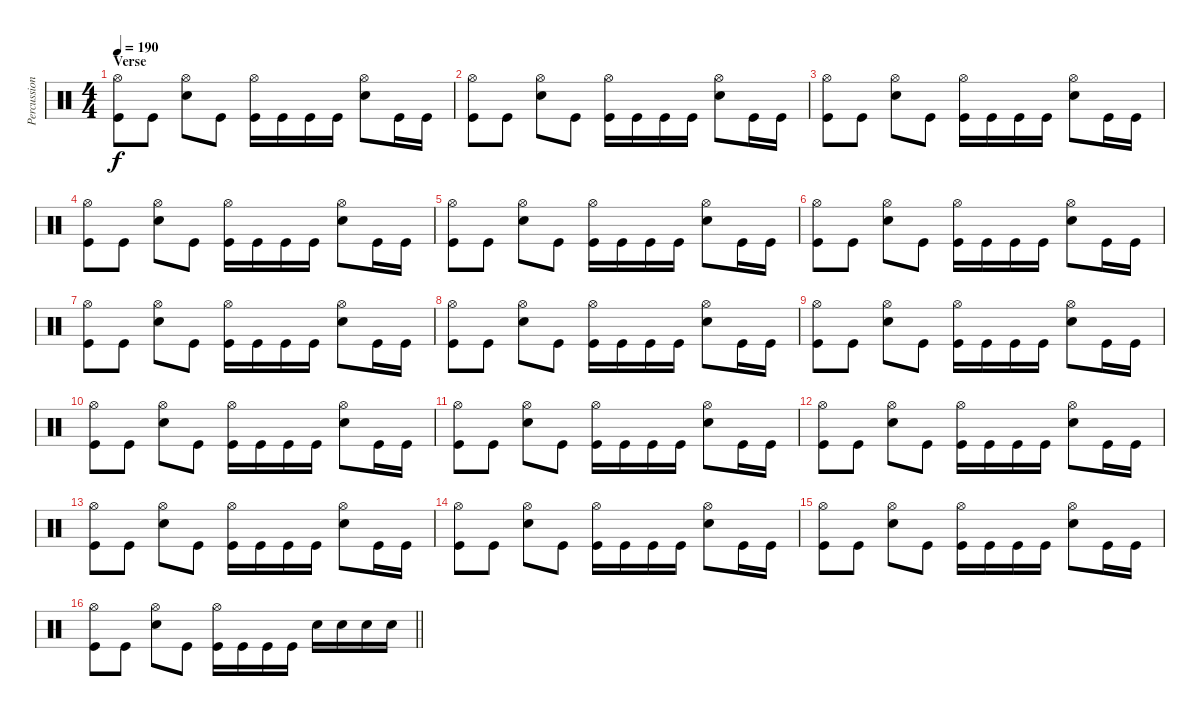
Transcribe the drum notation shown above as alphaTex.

\track ("Percussion" "Percussion") {instrument percussion}
\staff {score}
\articulation defaults
\ts (4 4)
\section ("" "Verse")
\tempo 190
\clef neutral
\ks c
("Hi-Hat (open)" "Kick (hit)").8{dy f} "Kick (hit)".8 ("Hi-Hat (open)" "Snare (hit) 2").8 "Kick (hit)".8 ("Hi-Hat (open)" "Kick (hit)").16 "Kick (hit)".16 "Kick (hit)".16 "Kick (hit)".16 ("Hi-Hat (open)" "Snare (hit) 2").8 "Kick (hit)".16 "Kick (hit)".16 |
("Hi-Hat (open)" "Kick (hit)").8 "Kick (hit)".8 ("Hi-Hat (open)" "Snare (hit) 2").8 "Kick (hit)".8 ("Hi-Hat (open)" "Kick (hit)").16 "Kick (hit)".16 "Kick (hit)".16 "Kick (hit)".16 ("Hi-Hat (open)" "Snare (hit) 2").8 "Kick (hit)".16 "Kick (hit)".16 |
("Hi-Hat (open)" "Kick (hit)").8 "Kick (hit)".8 ("Hi-Hat (open)" "Snare (hit) 2").8 "Kick (hit)".8 ("Hi-Hat (open)" "Kick (hit)").16 "Kick (hit)".16 "Kick (hit)".16 "Kick (hit)".16 ("Hi-Hat (open)" "Snare (hit) 2").8 "Kick (hit)".16 "Kick (hit)".16 |
("Hi-Hat (open)" "Kick (hit)").8 "Kick (hit)".8 ("Hi-Hat (open)" "Snare (hit) 2").8 "Kick (hit)".8 ("Hi-Hat (open)" "Kick (hit)").16 "Kick (hit)".16 "Kick (hit)".16 "Kick (hit)".16 ("Hi-Hat (open)" "Snare (hit) 2").8 "Kick (hit)".16 "Kick (hit)".16 |
("Hi-Hat (open)" "Kick (hit)").8 "Kick (hit)".8 ("Hi-Hat (open)" "Snare (hit) 2").8 "Kick (hit)".8 ("Hi-Hat (open)" "Kick (hit)").16 "Kick (hit)".16 "Kick (hit)".16 "Kick (hit)".16 ("Hi-Hat (open)" "Snare (hit) 2").8 "Kick (hit)".16 "Kick (hit)".16 |
("Hi-Hat (open)" "Kick (hit)").8 "Kick (hit)".8 ("Hi-Hat (open)" "Snare (hit) 2").8 "Kick (hit)".8 ("Hi-Hat (open)" "Kick (hit)").16 "Kick (hit)".16 "Kick (hit)".16 "Kick (hit)".16 ("Hi-Hat (open)" "Snare (hit) 2").8 "Kick (hit)".16 "Kick (hit)".16 |
("Hi-Hat (open)" "Kick (hit)").8 "Kick (hit)".8 ("Hi-Hat (open)" "Snare (hit) 2").8 "Kick (hit)".8 ("Hi-Hat (open)" "Kick (hit)").16 "Kick (hit)".16 "Kick (hit)".16 "Kick (hit)".16 ("Hi-Hat (open)" "Snare (hit) 2").8 "Kick (hit)".16 "Kick (hit)".16 |
("Hi-Hat (open)" "Kick (hit)").8 "Kick (hit)".8 ("Hi-Hat (open)" "Snare (hit) 2").8 "Kick (hit)".8 ("Hi-Hat (open)" "Kick (hit)").16 "Kick (hit)".16 "Kick (hit)".16 "Kick (hit)".16 ("Hi-Hat (open)" "Snare (hit) 2").8 "Kick (hit)".16 "Kick (hit)".16 |
("Hi-Hat (open)" "Kick (hit)").8 "Kick (hit)".8 ("Hi-Hat (open)" "Snare (hit) 2").8 "Kick (hit)".8 ("Hi-Hat (open)" "Kick (hit)").16 "Kick (hit)".16 "Kick (hit)".16 "Kick (hit)".16 ("Hi-Hat (open)" "Snare (hit) 2").8 "Kick (hit)".16 "Kick (hit)".16 |
("Hi-Hat (open)" "Kick (hit)").8 "Kick (hit)".8 ("Hi-Hat (open)" "Snare (hit) 2").8 "Kick (hit)".8 ("Hi-Hat (open)" "Kick (hit)").16 "Kick (hit)".16 "Kick (hit)".16 "Kick (hit)".16 ("Hi-Hat (open)" "Snare (hit) 2").8 "Kick (hit)".16 "Kick (hit)".16 |
("Hi-Hat (open)" "Kick (hit)").8 "Kick (hit)".8 ("Hi-Hat (open)" "Snare (hit) 2").8 "Kick (hit)".8 ("Hi-Hat (open)" "Kick (hit)").16 "Kick (hit)".16 "Kick (hit)".16 "Kick (hit)".16 ("Hi-Hat (open)" "Snare (hit) 2").8 "Kick (hit)".16 "Kick (hit)".16 |
("Hi-Hat (open)" "Kick (hit)").8 "Kick (hit)".8 ("Hi-Hat (open)" "Snare (hit) 2").8 "Kick (hit)".8 ("Hi-Hat (open)" "Kick (hit)").16 "Kick (hit)".16 "Kick (hit)".16 "Kick (hit)".16 ("Hi-Hat (open)" "Snare (hit) 2").8 "Kick (hit)".16 "Kick (hit)".16 |
("Hi-Hat (open)" "Kick (hit)").8 "Kick (hit)".8 ("Hi-Hat (open)" "Snare (hit) 2").8 "Kick (hit)".8 ("Hi-Hat (open)" "Kick (hit)").16 "Kick (hit)".16 "Kick (hit)".16 "Kick (hit)".16 ("Hi-Hat (open)" "Snare (hit) 2").8 "Kick (hit)".16 "Kick (hit)".16 |
("Hi-Hat (open)" "Kick (hit)").8 "Kick (hit)".8 ("Hi-Hat (open)" "Snare (hit) 2").8 "Kick (hit)".8 ("Hi-Hat (open)" "Kick (hit)").16 "Kick (hit)".16 "Kick (hit)".16 "Kick (hit)".16 ("Hi-Hat (open)" "Snare (hit) 2").8 "Kick (hit)".16 "Kick (hit)".16 |
("Hi-Hat (open)" "Kick (hit)").8 "Kick (hit)".8 ("Hi-Hat (open)" "Snare (hit) 2").8 "Kick (hit)".8 ("Hi-Hat (open)" "Kick (hit)").16 "Kick (hit)".16 "Kick (hit)".16 "Kick (hit)".16 ("Hi-Hat (open)" "Snare (hit) 2").8 "Kick (hit)".16 "Kick (hit)".16 |
\barLineRight lightlight
("Hi-Hat (open)" "Kick (hit)").8 "Kick (hit)".8 ("Hi-Hat (open)" "Snare (hit) 2").8 "Kick (hit)".8 ("Hi-Hat (open)" "Kick (hit)").16 "Kick (hit)".16 "Kick (hit)".16 "Kick (hit)".16 "Snare (hit) 2".16 "Snare (hit) 2".16 "Snare (hit) 2".16 "Snare (hit) 2".16
